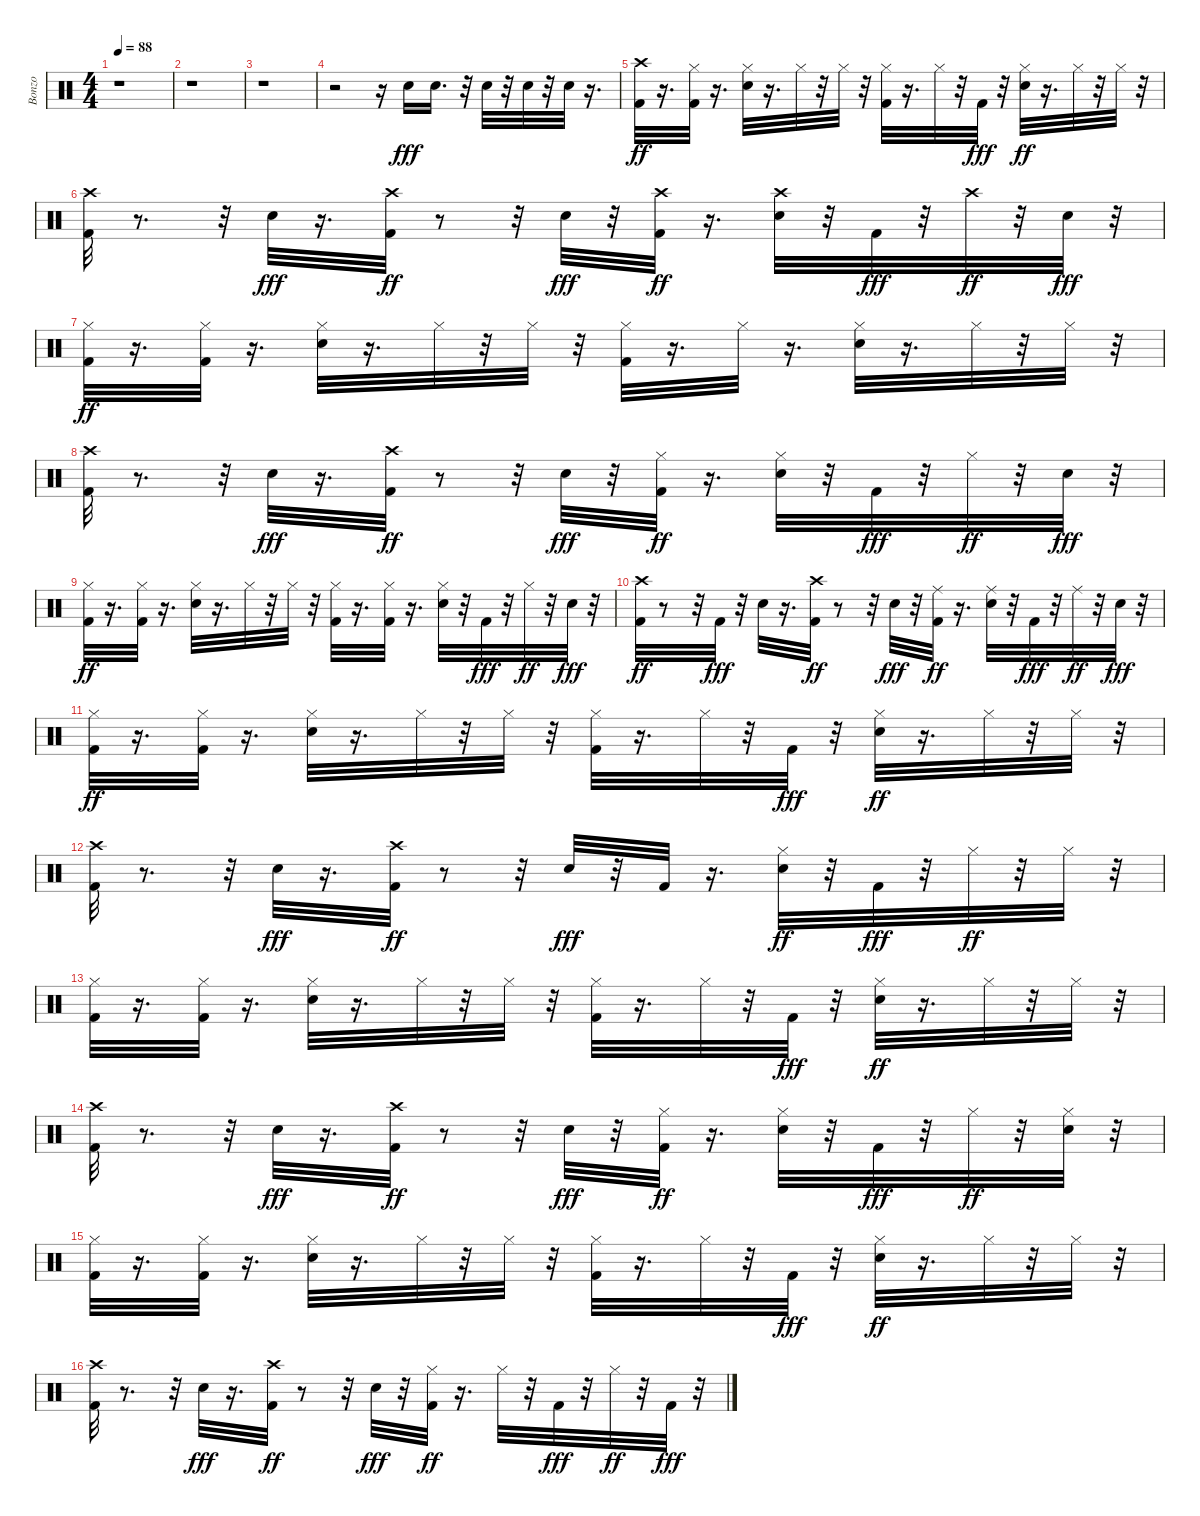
\track ("Bonzo" "Bonzo") {instrument percussion}
\staff {score}
\articulation defaults
\ts (4 4)
\tempo 88
\clef neutral
\ks c
r.1{dy fff} |
r.1 |
r.1 |
r.2 r.16 "Snare (hit) 2".16{volume 11} "Snare (hit) 2".16{d} r.32 "Snare (hit) 2".32 r.32 "Snare (hit) 2".32 r.32 "Snare (hit) 2".32 r.16{d} |
("Kick (hit) 2" "Crash high (hit)").32{dy ff} r.16{d} ("Kick (hit) 2" "Hi-Hat (closed)").32 r.16{d} ("Snare (hit) 2" "Hi-Hat (closed)").32 r.16{d} "Hi-Hat (closed)".32 r.32 "Hi-Hat (closed)".32 r.32 ("Kick (hit) 2" "Hi-Hat (closed)").32 r.16{d} "Hi-Hat (closed)".32 r.32 "Kick (hit) 2".32{dy fff} r.32 ("Snare (hit) 2" "Hi-Hat (closed)").32{dy ff} r.16{d} "Hi-Hat (closed)".32 r.32 "Hi-Hat (closed)".32 r.32 |
("Kick (hit) 2" "Crash high (hit)").32 r.8{d} r.32 "Snare (hit) 2".32{dy fff} r.16{d} ("Kick (hit) 2" "Crash high (hit)").32{dy ff} r.8 r.32 "Snare (hit) 2".32{dy fff} r.32 ("Kick (hit) 2" "Crash high (hit)").32{dy ff} r.16{d} ("Snare (hit) 2" "Crash high (hit)").32 r.32 "Kick (hit) 2".32{dy fff} r.32 "Crash high (hit)".32{dy ff} r.32 "Snare (hit) 2".32{dy fff} r.32 |
("Kick (hit) 2" "Hi-Hat (closed)").32{dy ff} r.16{d} ("Kick (hit) 2" "Hi-Hat (closed)").32 r.16{d} ("Snare (hit) 2" "Hi-Hat (closed)").32 r.16{d} "Hi-Hat (closed)".32 r.32 "Hi-Hat (closed)".32 r.32 ("Kick (hit) 2" "Hi-Hat (closed)").32 r.16{d} "Hi-Hat (closed)".32 r.16{d} ("Snare (hit) 2" "Hi-Hat (closed)").32 r.16{d} "Hi-Hat (closed)".32 r.32 "Hi-Hat (closed)".32 r.32 |
("Kick (hit) 2" "Crash high (hit)").32 r.8{d} r.32 "Snare (hit) 2".32{dy fff} r.16{d} ("Kick (hit) 2" "Crash high (hit)").32{dy ff} r.8 r.32 "Snare (hit) 2".32{dy fff} r.32 ("Kick (hit) 2" "Hi-Hat (closed)").32{dy ff} r.16{d} ("Snare (hit) 2" "Hi-Hat (closed)").32 r.32 "Kick (hit) 2".32{dy fff} r.32 "Hi-Hat (closed)".32{dy ff} r.32 "Snare (hit) 2".32{dy fff} r.32 |
("Kick (hit) 2" "Hi-Hat (closed)").32{dy ff} r.16{d} ("Kick (hit) 2" "Hi-Hat (closed)").32 r.16{d} ("Snare (hit) 2" "Hi-Hat (closed)").32 r.16{d} "Hi-Hat (closed)".32 r.32 "Hi-Hat (closed)".32 r.32 ("Kick (hit) 2" "Hi-Hat (closed)").32 r.16{d} ("Kick (hit) 2" "Hi-Hat (closed)").32 r.16{d} ("Snare (hit) 2" "Hi-Hat (closed)").32 r.32 "Kick (hit) 2".32{dy fff} r.32 "Hi-Hat (closed)".32{dy ff} r.32 "Snare (hit) 2".32{dy fff} r.32 |
("Kick (hit) 2" "Crash high (hit)").32{dy ff} r.8 r.32 "Kick (hit) 2".32{dy fff} r.32 "Snare (hit) 2".32 r.16{d} ("Kick (hit) 2" "Crash high (hit)").32{dy ff} r.8 r.32 "Snare (hit) 2".32{dy fff} r.32 ("Kick (hit) 2" "Ride (middle)").32{dy ff} r.16{d} ("Snare (hit) 2" "Ride (middle)").32 r.32 "Kick (hit) 2".32{dy fff} r.32 "Ride (middle)".32{dy ff} r.32 "Snare (hit) 2".32{dy fff} r.32 |
("Kick (hit) 2" "Hi-Hat (closed)").32{dy ff} r.16{d} ("Kick (hit) 2" "Hi-Hat (closed)").32 r.16{d} ("Snare (hit) 2" "Hi-Hat (closed)").32 r.16{d} "Hi-Hat (closed)".32 r.32 "Hi-Hat (closed)".32 r.32 ("Kick (hit) 2" "Hi-Hat (closed)").32 r.16{d} "Hi-Hat (closed)".32 r.32 "Kick (hit) 2".32{dy fff} r.32 ("Snare (hit) 2" "Hi-Hat (closed)").32{dy ff} r.16{d} "Hi-Hat (closed)".32 r.32 "Hi-Hat (closed)".32 r.32 |
("Kick (hit) 2" "Crash high (hit)").32 r.8{d} r.32 "Snare (hit) 2".32{dy fff} r.16{d} ("Kick (hit) 2" "Crash high (hit)").32{dy ff} r.8 r.32 "Snare (hit) 2".32{dy fff} r.32 "Kick (hit) 2".32 r.16{d} ("Snare (hit) 2" "Hi-Hat (closed)").32{dy ff} r.32 "Kick (hit) 2".32{dy fff} r.32 "Hi-Hat (closed)".32{dy ff} r.32 "Hi-Hat (closed)".32 r.32 |
("Kick (hit) 2" "Hi-Hat (closed)").32 r.16{d} ("Kick (hit) 2" "Hi-Hat (closed)").32 r.16{d} ("Snare (hit) 2" "Hi-Hat (closed)").32 r.16{d} "Hi-Hat (closed)".32 r.32 "Hi-Hat (closed)".32 r.32 ("Kick (hit) 2" "Hi-Hat (closed)").32 r.16{d} "Hi-Hat (closed)".32 r.32 "Kick (hit) 2".32{dy fff} r.32 ("Snare (hit) 2" "Hi-Hat (closed)").32{dy ff} r.16{d} "Hi-Hat (closed)".32 r.32 "Hi-Hat (closed)".32 r.32 |
("Kick (hit) 2" "Crash high (hit)").32 r.8{d} r.32 "Snare (hit) 2".32{dy fff} r.16{d} ("Kick (hit) 2" "Crash high (hit)").32{dy ff} r.8 r.32 "Snare (hit) 2".32{dy fff} r.32 ("Kick (hit) 2" "Hi-Hat (closed)").32{dy ff} r.16{d} ("Snare (hit) 2" "Hi-Hat (closed)").32 r.32 "Kick (hit) 2".32{dy fff} r.32 "Hi-Hat (closed)".32{dy ff} r.32 ("Snare (hit) 2" "Hi-Hat (closed)").32 r.32 |
("Kick (hit) 2" "Hi-Hat (closed)").32 r.16{d} ("Kick (hit) 2" "Hi-Hat (closed)").32 r.16{d} ("Snare (hit) 2" "Hi-Hat (closed)").32 r.16{d} "Hi-Hat (closed)".32 r.32 "Hi-Hat (closed)".32 r.32 ("Kick (hit) 2" "Hi-Hat (closed)").32 r.16{d} "Hi-Hat (closed)".32 r.32 "Kick (hit) 2".32{dy fff} r.32 ("Snare (hit) 2" "Hi-Hat (closed)").32{dy ff} r.16{d} "Hi-Hat (closed)".32 r.32 "Hi-Hat (closed)".32 r.32 |
("Kick (hit) 2" "Crash high (hit)").32 r.8{d} r.32 "Snare (hit) 2".32{dy fff} r.16{d} ("Kick (hit) 2" "Crash high (hit)").32{dy ff} r.8 r.32 "Snare (hit) 2".32{dy fff} r.32 ("Kick (hit) 2" "Hi-Hat (closed)").32{dy ff} r.16{d} "Hi-Hat (closed)".32 r.32 "Kick (hit) 2".32{dy fff} r.32 "Hi-Hat (closed)".32{dy ff} r.32 "Kick (hit) 2".32{dy fff} r.32
